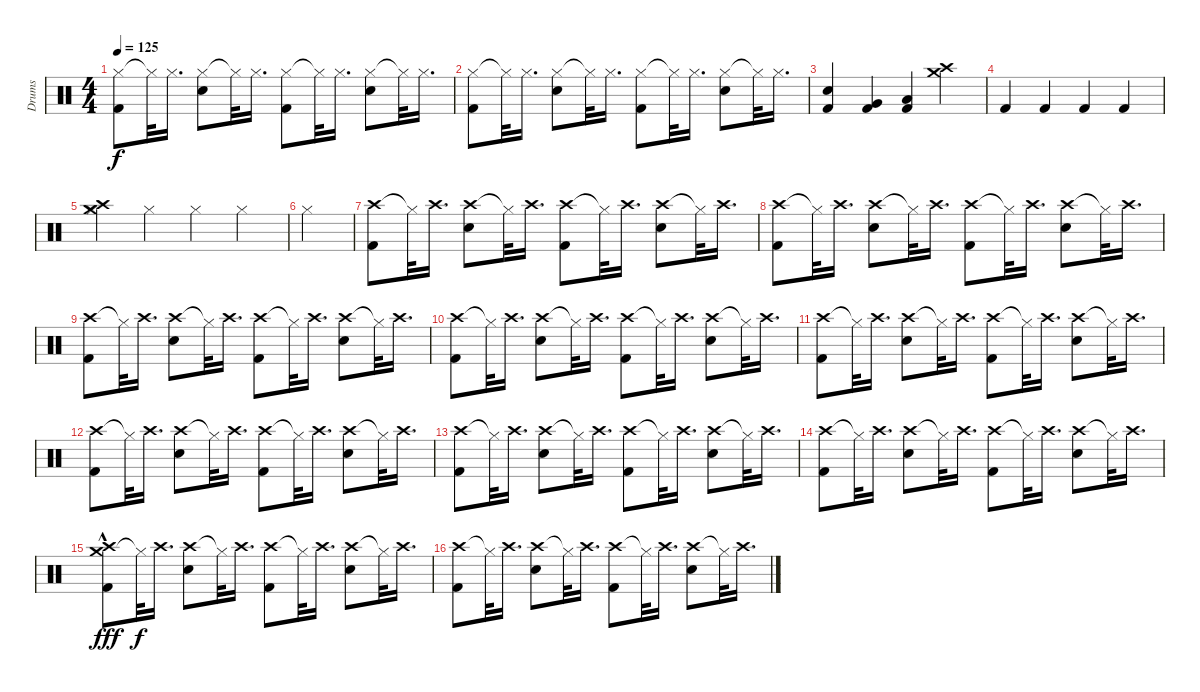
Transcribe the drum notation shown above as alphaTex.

\track ("Drums" "Drums") {instrument percussion}
\staff {score}
\articulation defaults
\ts (4 4)
\tempo 125
\clef neutral
\ks c
("Hi-Hat (closed)" "Kick (hit) 2").8{dy f} "Hi-Hat (closed)"{t}.32 "Hi-Hat (closed)".16{d} ("Hi-Hat (closed)" "Electric Snare (hit)").8 "Hi-Hat (closed)"{t}.32 "Hi-Hat (closed)".16{d} ("Hi-Hat (closed)" "Kick (hit) 2").8 "Hi-Hat (closed)"{t}.32 "Hi-Hat (closed)".16{d} ("Hi-Hat (closed)" "Electric Snare (hit)").8 "Hi-Hat (closed)"{t}.32 "Hi-Hat (closed)".16{d} |
("Hi-Hat (closed)" "Kick (hit) 2").8 "Hi-Hat (closed)"{t}.32 "Hi-Hat (closed)".16{d} ("Hi-Hat (closed)" "Electric Snare (hit)").8 "Hi-Hat (closed)"{t}.32 "Hi-Hat (closed)".16{d} ("Hi-Hat (closed)" "Kick (hit) 2").8 "Hi-Hat (closed)"{t}.32 "Hi-Hat (closed)".16{d} ("Hi-Hat (closed)" "Electric Snare (hit)").8 "Hi-Hat (closed)"{t}.32 "Hi-Hat (closed)".16{d} |
("Electric Snare (hit)" "Kick (hit) 2").4 ("Very Low Tom (hit)" "Kick (hit) 2").4 ("Low Floor Tom (hit)" "Kick (hit) 2").4 ("Crash high (hit)" "Crash medium (hit)").4 |
"Kick (hit) 2".4 "Kick (hit) 2".4 "Kick (hit) 2".4 "Kick (hit) 2".4 |
("Crash high (hit)" "Crash medium (hit)" "Hi-Hat (closed)").4 "Hi-Hat (closed)".4 "Hi-Hat (closed)".4 "Hi-Hat (closed)".4 |
"Hi-Hat (closed)".4 |
("Crash high (hit)" "Kick (hit) 2").8 "Hi-Hat (closed)"{t}.32 "Crash high (hit)".16{d} ("Crash high (hit)" "Electric Snare (hit)").8 "Hi-Hat (closed)"{t}.32 "Crash high (hit)".16{d} ("Crash high (hit)" "Kick (hit) 2").8 "Hi-Hat (closed)"{t}.32 "Crash high (hit)".16{d} ("Crash high (hit)" "Electric Snare (hit)").8 "Hi-Hat (closed)"{t}.32 "Crash high (hit)".16{d} |
("Crash high (hit)" "Kick (hit) 2").8 "Hi-Hat (closed)"{t}.32 "Crash high (hit)".16{d} ("Crash high (hit)" "Electric Snare (hit)").8 "Hi-Hat (closed)"{t}.32 "Crash high (hit)".16{d} ("Crash high (hit)" "Kick (hit) 2").8 "Hi-Hat (closed)"{t}.32 "Crash high (hit)".16{d} ("Crash high (hit)" "Electric Snare (hit)").8 "Hi-Hat (closed)"{t}.32 "Crash high (hit)".16{d} |
("Crash high (hit)" "Kick (hit) 2").8 "Hi-Hat (closed)"{t}.32 "Crash high (hit)".16{d} ("Crash high (hit)" "Electric Snare (hit)").8 "Hi-Hat (closed)"{t}.32 "Crash high (hit)".16{d} ("Crash high (hit)" "Kick (hit) 2").8 "Hi-Hat (closed)"{t}.32 "Crash high (hit)".16{d} ("Crash high (hit)" "Electric Snare (hit)").8 "Hi-Hat (closed)"{t}.32 "Crash high (hit)".16{d} |
("Crash high (hit)" "Kick (hit) 2").8 "Hi-Hat (closed)"{t}.32 "Crash high (hit)".16{d} ("Crash high (hit)" "Electric Snare (hit)").8 "Hi-Hat (closed)"{t}.32 "Crash high (hit)".16{d} ("Crash high (hit)" "Kick (hit) 2").8 "Hi-Hat (closed)"{t}.32 "Crash high (hit)".16{d} ("Crash high (hit)" "Electric Snare (hit)").8 "Hi-Hat (closed)"{t}.32 "Crash high (hit)".16{d} |
("Crash high (hit)" "Kick (hit) 2").8 "Hi-Hat (closed)"{t}.32 "Crash high (hit)".16{d} ("Crash high (hit)" "Electric Snare (hit)").8 "Hi-Hat (closed)"{t}.32 "Crash high (hit)".16{d} ("Crash high (hit)" "Kick (hit) 2").8 "Hi-Hat (closed)"{t}.32 "Crash high (hit)".16{d} ("Crash high (hit)" "Electric Snare (hit)").8 "Hi-Hat (closed)"{t}.32 "Crash high (hit)".16{d} |
("Crash high (hit)" "Kick (hit) 2").8 "Hi-Hat (closed)"{t}.32 "Crash high (hit)".16{d} ("Crash high (hit)" "Electric Snare (hit)").8 "Hi-Hat (closed)"{t}.32 "Crash high (hit)".16{d} ("Crash high (hit)" "Kick (hit) 2").8 "Hi-Hat (closed)"{t}.32 "Crash high (hit)".16{d} ("Crash high (hit)" "Electric Snare (hit)").8 "Hi-Hat (closed)"{t}.32 "Crash high (hit)".16{d} |
("Crash high (hit)" "Kick (hit) 2").8 "Hi-Hat (closed)"{t}.32 "Crash high (hit)".16{d} ("Crash high (hit)" "Electric Snare (hit)").8 "Hi-Hat (closed)"{t}.32 "Crash high (hit)".16{d} ("Crash high (hit)" "Kick (hit) 2").8 "Hi-Hat (closed)"{t}.32 "Crash high (hit)".16{d} ("Crash high (hit)" "Electric Snare (hit)").8 "Hi-Hat (closed)"{t}.32 "Crash high (hit)".16{d} |
("Crash high (hit)" "Kick (hit) 2").8 "Hi-Hat (closed)"{t}.32 "Crash high (hit)".16{d} ("Crash high (hit)" "Electric Snare (hit)").8 "Hi-Hat (closed)"{t}.32 "Crash high (hit)".16{d} ("Crash high (hit)" "Kick (hit) 2").8 "Hi-Hat (closed)"{t}.32 "Crash high (hit)".16{d} ("Crash high (hit)" "Electric Snare (hit)").8 "Hi-Hat (closed)"{t}.32 "Crash high (hit)".16{d} |
("Crash medium (hit)"{hac} "Crash high (hit)" "Kick (hit) 2").8{dy fff} "Hi-Hat (closed)"{t}.32{dy f} "Crash high (hit)".16{d} ("Crash high (hit)" "Electric Snare (hit)").8 "Hi-Hat (closed)"{t}.32 "Crash high (hit)".16{d} ("Crash high (hit)" "Kick (hit) 2").8 "Hi-Hat (closed)"{t}.32 "Crash high (hit)".16{d} ("Crash high (hit)" "Electric Snare (hit)").8 "Hi-Hat (closed)"{t}.32 "Crash high (hit)".16{d} |
("Crash high (hit)" "Kick (hit) 2").8 "Hi-Hat (closed)"{t}.32 "Crash high (hit)".16{d} ("Crash high (hit)" "Electric Snare (hit)").8 "Hi-Hat (closed)"{t}.32 "Crash high (hit)".16{d} ("Crash high (hit)" "Kick (hit) 2").8 "Hi-Hat (closed)"{t}.32 "Crash high (hit)".16{d} ("Crash high (hit)" "Electric Snare (hit)").8 "Hi-Hat (closed)"{t}.32 "Crash high (hit)".16{d}
